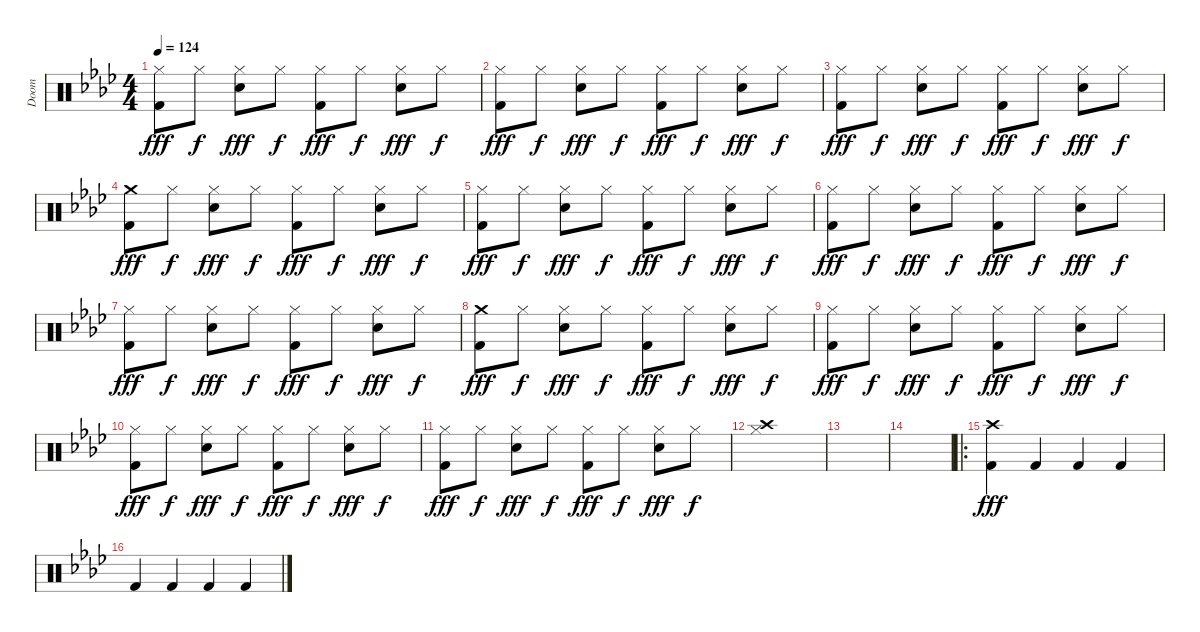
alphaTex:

\track ("Doom" "Doom") {instrument percussion}
\staff {score}
\articulation defaults
\ts (4 4)
\tempo 124
\clef neutral
\ks ab
("Hi-Hat (closed)" "Kick (hit) 2").8{dy fff} "Hi-Hat (closed)".8{dy f} ("Hi-Hat (closed)" "Snare (hit) 2").8{dy fff} "Hi-Hat (closed)".8{dy f} ("Hi-Hat (closed)" "Kick (hit) 2").8{dy fff} "Hi-Hat (closed)".8{dy f} ("Hi-Hat (closed)" "Snare (hit) 2").8{dy fff} "Hi-Hat (closed)".8{dy f} |
("Hi-Hat (closed)" "Kick (hit) 2").8{dy fff} "Hi-Hat (closed)".8{dy f} ("Hi-Hat (closed)" "Snare (hit) 2").8{dy fff} "Hi-Hat (closed)".8{dy f} ("Hi-Hat (closed)" "Kick (hit) 2").8{dy fff} "Hi-Hat (closed)".8{dy f} ("Hi-Hat (closed)" "Snare (hit) 2").8{dy fff} "Hi-Hat (closed)".8{dy f} |
("Hi-Hat (closed)" "Kick (hit) 2").8{dy fff} "Hi-Hat (closed)".8{dy f} ("Hi-Hat (closed)" "Snare (hit) 2").8{dy fff} "Hi-Hat (closed)".8{dy f} ("Hi-Hat (closed)" "Kick (hit) 2").8{dy fff} "Hi-Hat (closed)".8{dy f} ("Hi-Hat (closed)" "Snare (hit) 2").8{dy fff} "Hi-Hat (closed)".8{dy f} |
("Crash medium (hit)" "Kick (hit) 2").8{dy fff} "Hi-Hat (closed)".8{dy f} ("Hi-Hat (closed)" "Snare (hit) 2").8{dy fff} "Hi-Hat (closed)".8{dy f} ("Hi-Hat (closed)" "Kick (hit) 2").8{dy fff} "Hi-Hat (closed)".8{dy f} ("Hi-Hat (closed)" "Snare (hit) 2").8{dy fff} "Hi-Hat (closed)".8{dy f} |
("Hi-Hat (closed)" "Kick (hit) 2").8{dy fff} "Hi-Hat (closed)".8{dy f} ("Hi-Hat (closed)" "Snare (hit) 2").8{dy fff} "Hi-Hat (closed)".8{dy f} ("Hi-Hat (closed)" "Kick (hit) 2").8{dy fff} "Hi-Hat (closed)".8{dy f} ("Hi-Hat (closed)" "Snare (hit) 2").8{dy fff} "Hi-Hat (closed)".8{dy f} |
("Hi-Hat (closed)" "Kick (hit) 2").8{dy fff} "Hi-Hat (closed)".8{dy f} ("Hi-Hat (closed)" "Snare (hit) 2").8{dy fff} "Hi-Hat (closed)".8{dy f} ("Hi-Hat (closed)" "Kick (hit) 2").8{dy fff} "Hi-Hat (closed)".8{dy f} ("Hi-Hat (closed)" "Snare (hit) 2").8{dy fff} "Hi-Hat (closed)".8{dy f} |
("Hi-Hat (closed)" "Kick (hit) 2").8{dy fff} "Hi-Hat (closed)".8{dy f} ("Hi-Hat (closed)" "Snare (hit) 2").8{dy fff} "Hi-Hat (closed)".8{dy f} ("Hi-Hat (closed)" "Kick (hit) 2").8{dy fff} "Hi-Hat (closed)".8{dy f} ("Hi-Hat (closed)" "Snare (hit) 2").8{dy fff} "Hi-Hat (closed)".8{dy f} |
("Crash medium (hit)" "Kick (hit) 2").8{dy fff} "Hi-Hat (closed)".8{dy f} ("Hi-Hat (closed)" "Snare (hit) 2").8{dy fff} "Hi-Hat (closed)".8{dy f} ("Hi-Hat (closed)" "Kick (hit) 2").8{dy fff} "Hi-Hat (closed)".8{dy f} ("Hi-Hat (closed)" "Snare (hit) 2").8{dy fff} "Hi-Hat (closed)".8{dy f} |
("Hi-Hat (closed)" "Kick (hit) 2").8{dy fff} "Hi-Hat (closed)".8{dy f} ("Hi-Hat (closed)" "Snare (hit) 2").8{dy fff} "Hi-Hat (closed)".8{dy f} ("Hi-Hat (closed)" "Kick (hit) 2").8{dy fff} "Hi-Hat (closed)".8{dy f} ("Hi-Hat (closed)" "Snare (hit) 2").8{dy fff} "Hi-Hat (closed)".8{dy f} |
("Hi-Hat (closed)" "Kick (hit) 2").8{dy fff} "Hi-Hat (closed)".8{dy f} ("Hi-Hat (closed)" "Snare (hit) 2").8{dy fff} "Hi-Hat (closed)".8{dy f} ("Hi-Hat (closed)" "Kick (hit) 2").8{dy fff} "Hi-Hat (closed)".8{dy f} ("Hi-Hat (closed)" "Snare (hit) 2").8{dy fff} "Hi-Hat (closed)".8{dy f} |
("Hi-Hat (closed)" "Kick (hit) 2").8{dy fff} "Hi-Hat (closed)".8{dy f} ("Hi-Hat (closed)" "Snare (hit) 2").8{dy fff} "Hi-Hat (closed)".8{dy f} ("Hi-Hat (closed)" "Kick (hit) 2").8{dy fff} "Hi-Hat (closed)".8{dy f} ("Hi-Hat (closed)" "Snare (hit) 2").8{dy fff} "Hi-Hat (closed)".8{dy f} |
("Hi-Hat (closed)" "Crash high (hit)").1 |
|
|
\ro
("Crash high (hit)" "Kick (hit) 2").4{dy fff} "Kick (hit) 2".4 "Kick (hit) 2".4 "Kick (hit) 2".4 |
"Kick (hit) 2".4 "Kick (hit) 2".4 "Kick (hit) 2".4 "Kick (hit) 2".4
